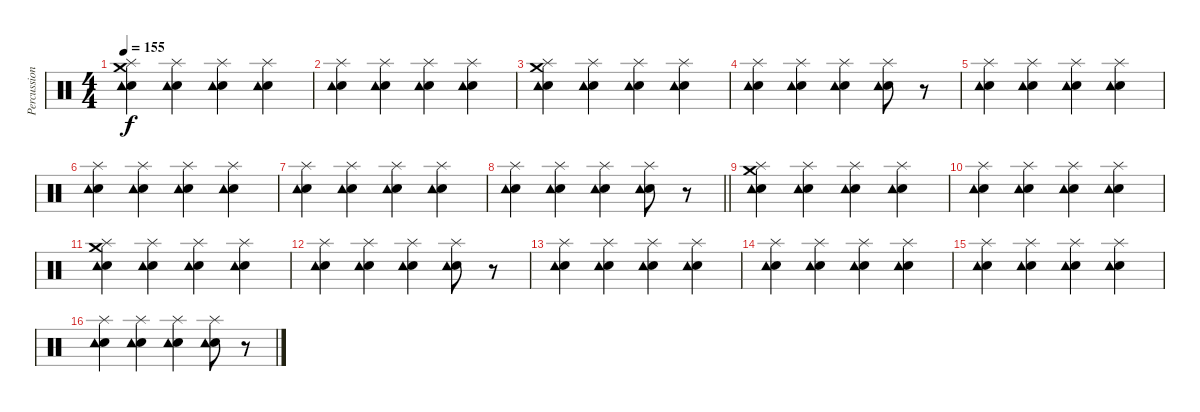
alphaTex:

\track ("Percussions" "Percussion") {instrument percussion}
\staff {score}
\articulation defaults
\ts (4 4)
\tempo 155
\clef neutral
\ks c
("Crash medium (hit)" "Hand Clap (hit)" "Splash (hit)" "Tambourine (hit)").4{dy f} ("Hand Clap (hit)" "Splash (hit)" "Tambourine (hit)").4 ("Hand Clap (hit)" "Splash (hit)" "Tambourine (hit)").4 ("Hand Clap (hit)" "Splash (hit)" "Tambourine (hit)").4 |
("Hand Clap (hit)" "Splash (hit)" "Tambourine (hit)").4 ("Hand Clap (hit)" "Splash (hit)" "Tambourine (hit)").4 ("Hand Clap (hit)" "Splash (hit)" "Tambourine (hit)").4 ("Hand Clap (hit)" "Splash (hit)" "Tambourine (hit)").4 |
("Crash medium (hit)" "Hand Clap (hit)" "Splash (hit)" "Tambourine (hit)").4 ("Hand Clap (hit)" "Splash (hit)" "Tambourine (hit)").4 ("Hand Clap (hit)" "Splash (hit)" "Tambourine (hit)").4 ("Hand Clap (hit)" "Splash (hit)" "Tambourine (hit)").4 |
("Hand Clap (hit)" "Splash (hit)" "Tambourine (hit)").4 ("Hand Clap (hit)" "Splash (hit)" "Tambourine (hit)").4 ("Hand Clap (hit)" "Splash (hit)" "Tambourine (hit)").4 ("Hand Clap (hit)" "Splash (hit)" "Tambourine (hit)").8 r.8 |
("Hand Clap (hit)" "Splash (hit)" "Tambourine (hit)").4 ("Hand Clap (hit)" "Splash (hit)" "Tambourine (hit)").4 ("Hand Clap (hit)" "Splash (hit)" "Tambourine (hit)").4 ("Hand Clap (hit)" "Splash (hit)" "Tambourine (hit)").4 |
("Hand Clap (hit)" "Splash (hit)" "Tambourine (hit)").4 ("Hand Clap (hit)" "Splash (hit)" "Tambourine (hit)").4 ("Hand Clap (hit)" "Splash (hit)" "Tambourine (hit)").4 ("Hand Clap (hit)" "Splash (hit)" "Tambourine (hit)").4 |
("Hand Clap (hit)" "Splash (hit)" "Tambourine (hit)").4 ("Hand Clap (hit)" "Splash (hit)" "Tambourine (hit)").4 ("Hand Clap (hit)" "Splash (hit)" "Tambourine (hit)").4 ("Hand Clap (hit)" "Splash (hit)" "Tambourine (hit)").4 |
\barLineRight lightlight
("Hand Clap (hit)" "Splash (hit)" "Tambourine (hit)").4 ("Hand Clap (hit)" "Splash (hit)" "Tambourine (hit)").4 ("Hand Clap (hit)" "Splash (hit)" "Tambourine (hit)").4 ("Hand Clap (hit)" "Splash (hit)" "Tambourine (hit)").8 r.8 |
\section ("" "")
("Crash medium (hit)" "Hand Clap (hit)" "Splash (hit)" "Tambourine (hit)").4 ("Hand Clap (hit)" "Splash (hit)" "Tambourine (hit)").4 ("Hand Clap (hit)" "Splash (hit)" "Tambourine (hit)").4 ("Hand Clap (hit)" "Splash (hit)" "Tambourine (hit)").4 |
("Hand Clap (hit)" "Splash (hit)" "Tambourine (hit)").4 ("Hand Clap (hit)" "Splash (hit)" "Tambourine (hit)").4 ("Hand Clap (hit)" "Splash (hit)" "Tambourine (hit)").4 ("Hand Clap (hit)" "Splash (hit)" "Tambourine (hit)").4 |
("Crash medium (hit)" "Hand Clap (hit)" "Splash (hit)" "Tambourine (hit)").4 ("Hand Clap (hit)" "Splash (hit)" "Tambourine (hit)").4 ("Hand Clap (hit)" "Splash (hit)" "Tambourine (hit)").4 ("Hand Clap (hit)" "Splash (hit)" "Tambourine (hit)").4 |
("Hand Clap (hit)" "Splash (hit)" "Tambourine (hit)").4 ("Hand Clap (hit)" "Splash (hit)" "Tambourine (hit)").4 ("Hand Clap (hit)" "Splash (hit)" "Tambourine (hit)").4 ("Hand Clap (hit)" "Splash (hit)" "Tambourine (hit)").8 r.8 |
("Hand Clap (hit)" "Splash (hit)" "Tambourine (hit)").4 ("Hand Clap (hit)" "Splash (hit)" "Tambourine (hit)").4 ("Hand Clap (hit)" "Splash (hit)" "Tambourine (hit)").4 ("Hand Clap (hit)" "Splash (hit)" "Tambourine (hit)").4 |
("Hand Clap (hit)" "Splash (hit)" "Tambourine (hit)").4 ("Hand Clap (hit)" "Splash (hit)" "Tambourine (hit)").4 ("Hand Clap (hit)" "Splash (hit)" "Tambourine (hit)").4 ("Hand Clap (hit)" "Splash (hit)" "Tambourine (hit)").4 |
("Hand Clap (hit)" "Splash (hit)" "Tambourine (hit)").4 ("Hand Clap (hit)" "Splash (hit)" "Tambourine (hit)").4 ("Hand Clap (hit)" "Splash (hit)" "Tambourine (hit)").4 ("Hand Clap (hit)" "Splash (hit)" "Tambourine (hit)").4 |
("Hand Clap (hit)" "Splash (hit)" "Tambourine (hit)").4 ("Hand Clap (hit)" "Splash (hit)" "Tambourine (hit)").4 ("Hand Clap (hit)" "Splash (hit)" "Tambourine (hit)").4 ("Hand Clap (hit)" "Splash (hit)" "Tambourine (hit)").8 r.8
